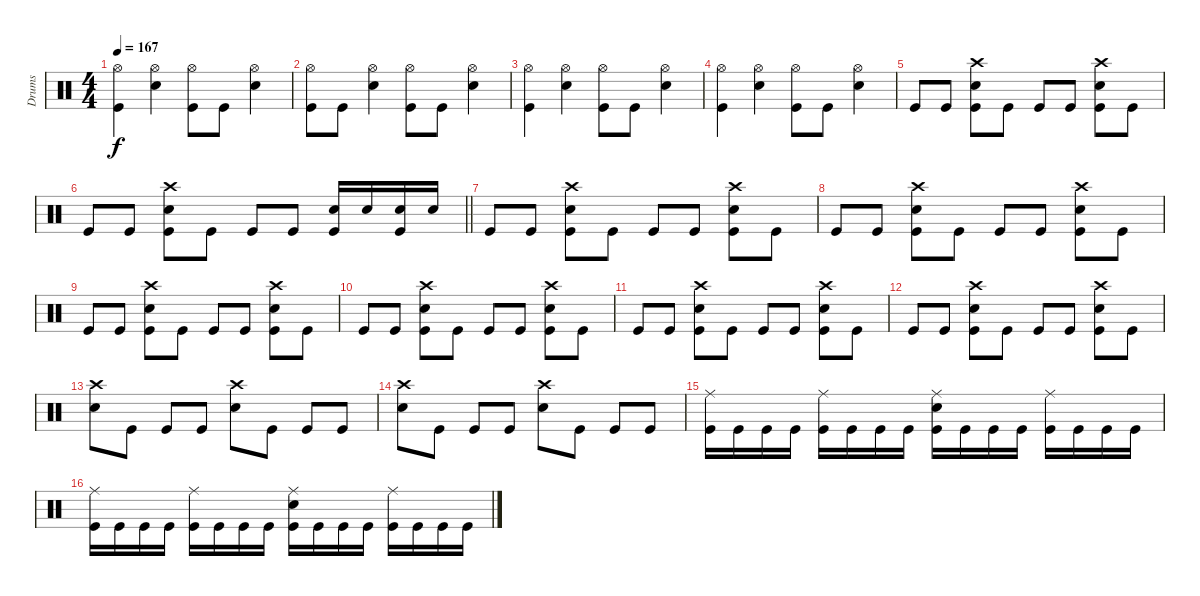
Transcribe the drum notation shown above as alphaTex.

\track ("Drums" "Drums") {instrument percussion}
\staff {score}
\articulation defaults
\ts (4 4)
\tempo 167
\clef neutral
\ks c
("Hi-Hat (open)" "Kick (hit)").4{dy f} ("Hi-Hat (open)" "Snare (hit) 2").4 ("Hi-Hat (open)" "Kick (hit)").8 "Kick (hit)".8 ("Hi-Hat (open)" "Snare (hit) 2").4 |
("Hi-Hat (open)" "Kick (hit)").8 "Kick (hit)".8 ("Hi-Hat (open)" "Snare (hit) 2").4 ("Hi-Hat (open)" "Kick (hit)").8 "Kick (hit)".8 ("Hi-Hat (open)" "Snare (hit) 2").4 |
("Hi-Hat (open)" "Kick (hit)").4 ("Hi-Hat (open)" "Snare (hit) 2").4 ("Hi-Hat (open)" "Kick (hit)").8 "Kick (hit)".8 ("Hi-Hat (open)" "Snare (hit) 2").4 |
("Hi-Hat (open)" "Kick (hit)").4 ("Hi-Hat (open)" "Snare (hit) 2").4 ("Hi-Hat (open)" "Kick (hit)").8 "Kick (hit)".8 ("Hi-Hat (open)" "Snare (hit) 2").4 |
"Kick (hit)".8 "Kick (hit)".8 ("Crash high (hit)" "Snare (hit) 2" "Kick (hit)").8 "Kick (hit)".8 "Kick (hit)".8 "Kick (hit)".8 ("Crash high (hit)" "Snare (hit) 2" "Kick (hit)").8 "Kick (hit)".8 |
\barLineRight lightlight "Kick (hit)".8 "Kick (hit)".8
("Crash high (hit)" "Snare (hit) 2" "Kick (hit)").8 "Kick (hit)".8 "Kick (hit)".8 "Kick (hit)".8 ("Snare (hit) 2" "Kick (hit)").16 "Snare (hit) 2".16 ("Snare (hit) 2" "Kick (hit)").16 "Snare (hit) 2".16 |
"Kick (hit)".8 "Kick (hit)".8 ("Crash high (hit)" "Snare (hit) 2" "Kick (hit)").8 "Kick (hit)".8 "Kick (hit)".8 "Kick (hit)".8 ("Crash high (hit)" "Snare (hit) 2" "Kick (hit)").8 "Kick (hit)".8 |
"Kick (hit)".8 "Kick (hit)".8 ("Crash high (hit)" "Snare (hit) 2" "Kick (hit)").8 "Kick (hit)".8 "Kick (hit)".8 "Kick (hit)".8 ("Crash high (hit)" "Snare (hit) 2" "Kick (hit)").8 "Kick (hit)".8 |
"Kick (hit)".8 "Kick (hit)".8 ("Crash high (hit)" "Snare (hit) 2" "Kick (hit)").8 "Kick (hit)".8 "Kick (hit)".8 "Kick (hit)".8 ("Crash high (hit)" "Snare (hit) 2" "Kick (hit)").8 "Kick (hit)".8 |
"Kick (hit)".8 "Kick (hit)".8 ("Crash high (hit)" "Snare (hit) 2" "Kick (hit)").8 "Kick (hit)".8 "Kick (hit)".8 "Kick (hit)".8 ("Crash high (hit)" "Snare (hit) 2" "Kick (hit)").8 "Kick (hit)".8 |
"Kick (hit)".8 "Kick (hit)".8 ("Crash high (hit)" "Snare (hit) 2" "Kick (hit)").8 "Kick (hit)".8 "Kick (hit)".8 "Kick (hit)".8 ("Crash high (hit)" "Snare (hit) 2" "Kick (hit)").8 "Kick (hit)".8 |
"Kick (hit)".8 "Kick (hit)".8 ("Crash high (hit)" "Snare (hit) 2" "Kick (hit)").8 "Kick (hit)".8 "Kick (hit)".8 "Kick (hit)".8 ("Crash high (hit)" "Snare (hit) 2" "Kick (hit)").8 "Kick (hit)".8 |
("Crash high (hit)" "Snare (hit) 2").8 "Kick (hit)".8 "Kick (hit)".8 "Kick (hit)".8 ("Crash high (hit)" "Snare (hit) 2").8 "Kick (hit)".8 "Kick (hit)".8 "Kick (hit)".8 |
("Crash high (hit)" "Snare (hit) 2").8 "Kick (hit)".8 "Kick (hit)".8 "Kick (hit)".8 ("Crash high (hit)" "Snare (hit) 2").8 "Kick (hit)".8 "Kick (hit)".8 "Kick (hit)".8 |
("Ride (middle)" "Kick (hit)").16 "Kick (hit)".16 "Kick (hit)".16 "Kick (hit)".16 ("Ride (middle)" "Kick (hit)").16 "Kick (hit)".16 "Kick (hit)".16 "Kick (hit)".16 ("Ride (middle)" "Snare (hit) 2" "Kick (hit)").16 "Kick (hit)".16 "Kick (hit)".16 "Kick (hit)".16 ("Ride (middle)" "Kick (hit)").16 "Kick (hit)".16 "Kick (hit)".16 "Kick (hit)".16 |
("Ride (middle)" "Kick (hit)").16 "Kick (hit)".16 "Kick (hit)".16 "Kick (hit)".16 ("Ride (middle)" "Kick (hit)").16 "Kick (hit)".16 "Kick (hit)".16 "Kick (hit)".16 ("Ride (middle)" "Snare (hit) 2" "Kick (hit)").16 "Kick (hit)".16 "Kick (hit)".16 "Kick (hit)".16 ("Ride (middle)" "Kick (hit)").16 "Kick (hit)".16 "Kick (hit)".16 "Kick (hit)".16
